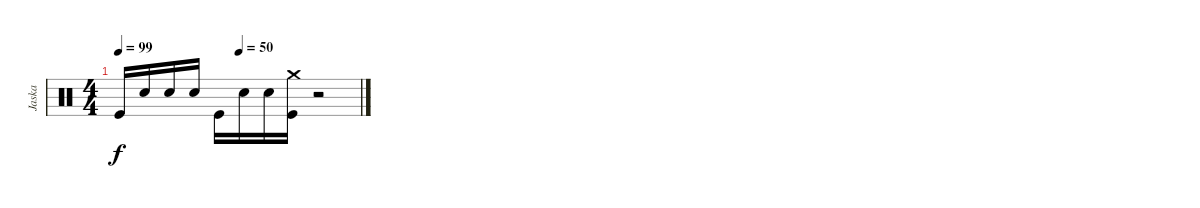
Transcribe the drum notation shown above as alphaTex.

\track ("Jaska" "Jaska") {instrument percussion}
\staff {score}
\articulation defaults
\ts (4 4)
\tempo 99
\tempo (50 0.5)
\clef neutral
\ks c "Kick (hit)".16{dy f} "Electric Snare (hit)".16 "Electric Snare (hit)".16 "Electric Snare (hit)".16 "Kick (hit)".16 "Electric Snare (hit)".16 "Electric Snare (hit)".16
("Crash medium (hit)" "Kick (hit)").16 r.2
